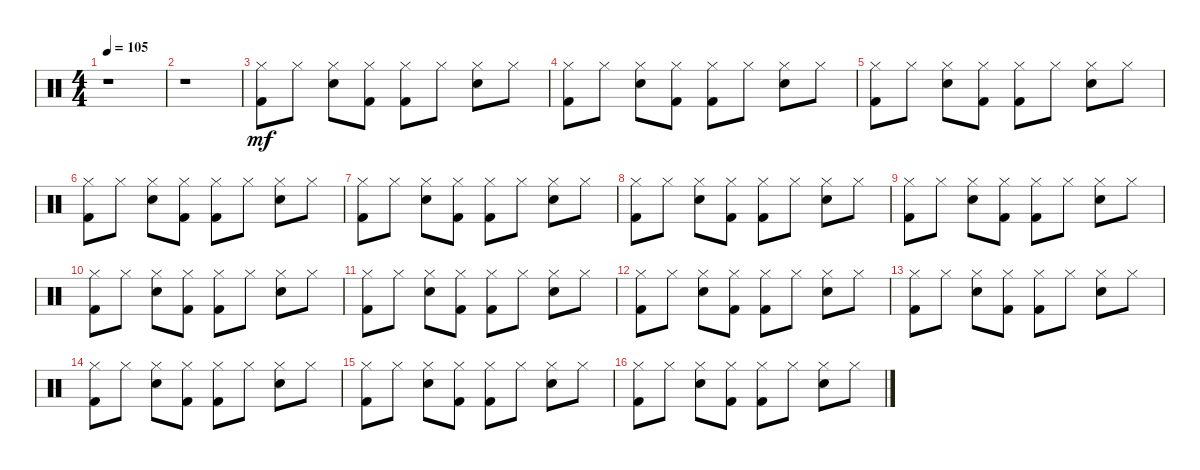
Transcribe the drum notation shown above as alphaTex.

\track "" {instrument percussion}
\staff {score}
\articulation defaults
\ts (4 4)
\tempo 105
\clef neutral
\ks c
r.1{dy mf} |
r.1 |
("Kick (hit) 2" "Hi-Hat (closed)").8{volume 14} "Hi-Hat (closed)".8 ("Snare (hit) 2" "Hi-Hat (closed)").8 ("Kick (hit) 2" "Hi-Hat (closed)").8 ("Kick (hit) 2" "Hi-Hat (closed)").8 "Hi-Hat (closed)".8 ("Snare (hit) 2" "Hi-Hat (closed)").8 "Hi-Hat (closed)".8 |
("Kick (hit) 2" "Hi-Hat (closed)").8 "Hi-Hat (closed)".8 ("Snare (hit) 2" "Hi-Hat (closed)").8 ("Kick (hit) 2" "Hi-Hat (closed)").8 ("Kick (hit) 2" "Hi-Hat (closed)").8 "Hi-Hat (closed)".8 ("Snare (hit) 2" "Hi-Hat (closed)").8 "Hi-Hat (closed)".8 |
("Kick (hit) 2" "Hi-Hat (closed)").8 "Hi-Hat (closed)".8 ("Snare (hit) 2" "Hi-Hat (closed)").8 ("Kick (hit) 2" "Hi-Hat (closed)").8 ("Kick (hit) 2" "Hi-Hat (closed)").8 "Hi-Hat (closed)".8 ("Snare (hit) 2" "Hi-Hat (closed)").8 "Hi-Hat (closed)".8 |
("Kick (hit) 2" "Hi-Hat (closed)").8 "Hi-Hat (closed)".8 ("Snare (hit) 2" "Hi-Hat (closed)").8 ("Kick (hit) 2" "Hi-Hat (closed)").8 ("Kick (hit) 2" "Hi-Hat (closed)").8 "Hi-Hat (closed)".8 ("Snare (hit) 2" "Hi-Hat (closed)").8 "Hi-Hat (closed)".8 |
("Kick (hit) 2" "Hi-Hat (closed)").8 "Hi-Hat (closed)".8 ("Snare (hit) 2" "Hi-Hat (closed)").8 ("Kick (hit) 2" "Hi-Hat (closed)").8 ("Kick (hit) 2" "Hi-Hat (closed)").8 "Hi-Hat (closed)".8 ("Snare (hit) 2" "Hi-Hat (closed)").8 "Hi-Hat (closed)".8 |
("Kick (hit) 2" "Hi-Hat (closed)").8 "Hi-Hat (closed)".8 ("Snare (hit) 2" "Hi-Hat (closed)").8 ("Kick (hit) 2" "Hi-Hat (closed)").8 ("Kick (hit) 2" "Hi-Hat (closed)").8 "Hi-Hat (closed)".8 ("Snare (hit) 2" "Hi-Hat (closed)").8 "Hi-Hat (closed)".8 |
("Kick (hit) 2" "Hi-Hat (closed)").8 "Hi-Hat (closed)".8 ("Snare (hit) 2" "Hi-Hat (closed)").8 ("Kick (hit) 2" "Hi-Hat (closed)").8 ("Kick (hit) 2" "Hi-Hat (closed)").8 "Hi-Hat (closed)".8 ("Snare (hit) 2" "Hi-Hat (closed)").8 "Hi-Hat (closed)".8 |
("Kick (hit) 2" "Hi-Hat (closed)").8 "Hi-Hat (closed)".8 ("Snare (hit) 2" "Hi-Hat (closed)").8 ("Kick (hit) 2" "Hi-Hat (closed)").8 ("Kick (hit) 2" "Hi-Hat (closed)").8 "Hi-Hat (closed)".8 ("Snare (hit) 2" "Hi-Hat (closed)").8 "Hi-Hat (closed)".8 |
("Kick (hit) 2" "Hi-Hat (closed)").8 "Hi-Hat (closed)".8 ("Snare (hit) 2" "Hi-Hat (closed)").8 ("Kick (hit) 2" "Hi-Hat (closed)").8 ("Kick (hit) 2" "Hi-Hat (closed)").8 "Hi-Hat (closed)".8 ("Snare (hit) 2" "Hi-Hat (closed)").8 "Hi-Hat (closed)".8 |
("Kick (hit) 2" "Hi-Hat (closed)").8 "Hi-Hat (closed)".8 ("Snare (hit) 2" "Hi-Hat (closed)").8 ("Kick (hit) 2" "Hi-Hat (closed)").8 ("Kick (hit) 2" "Hi-Hat (closed)").8 "Hi-Hat (closed)".8 ("Snare (hit) 2" "Hi-Hat (closed)").8 "Hi-Hat (closed)".8 |
("Kick (hit) 2" "Hi-Hat (closed)").8 "Hi-Hat (closed)".8 ("Snare (hit) 2" "Hi-Hat (closed)").8 ("Kick (hit) 2" "Hi-Hat (closed)").8 ("Kick (hit) 2" "Hi-Hat (closed)").8 "Hi-Hat (closed)".8 ("Snare (hit) 2" "Hi-Hat (closed)").8 "Hi-Hat (closed)".8 |
("Kick (hit) 2" "Hi-Hat (closed)").8 "Hi-Hat (closed)".8 ("Snare (hit) 2" "Hi-Hat (closed)").8 ("Kick (hit) 2" "Hi-Hat (closed)").8 ("Kick (hit) 2" "Hi-Hat (closed)").8 "Hi-Hat (closed)".8 ("Snare (hit) 2" "Hi-Hat (closed)").8 "Hi-Hat (closed)".8 |
("Kick (hit) 2" "Hi-Hat (closed)").8 "Hi-Hat (closed)".8 ("Snare (hit) 2" "Hi-Hat (closed)").8 ("Kick (hit) 2" "Hi-Hat (closed)").8 ("Kick (hit) 2" "Hi-Hat (closed)").8 "Hi-Hat (closed)".8 ("Snare (hit) 2" "Hi-Hat (closed)").8 "Hi-Hat (closed)".8 |
("Kick (hit) 2" "Hi-Hat (closed)").8 "Hi-Hat (closed)".8 ("Snare (hit) 2" "Hi-Hat (closed)").8 ("Kick (hit) 2" "Hi-Hat (closed)").8 ("Kick (hit) 2" "Hi-Hat (closed)").8 "Hi-Hat (closed)".8 ("Snare (hit) 2" "Hi-Hat (closed)").8 "Hi-Hat (closed)".8
